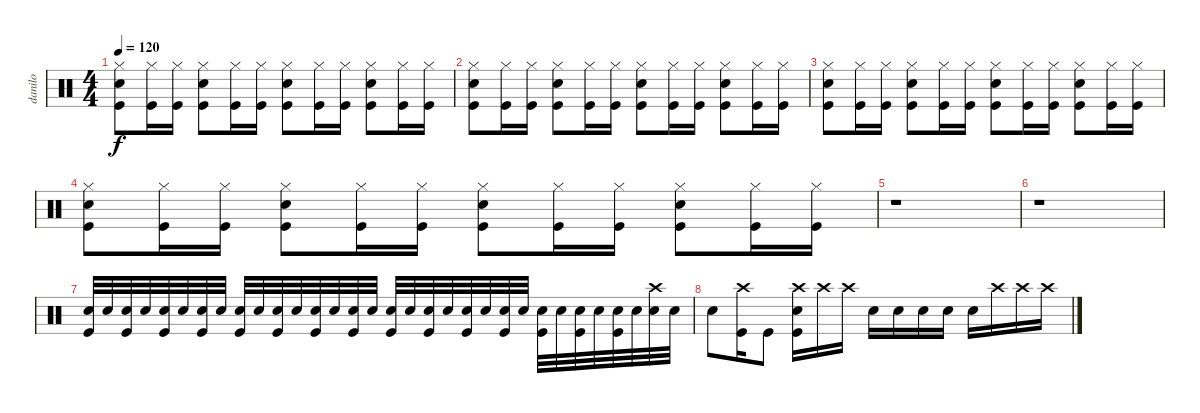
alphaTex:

\track ("danilo" "danilo") {instrument percussion}
\staff {score}
\articulation defaults
\ts (4 4)
\tempo 120
\clef neutral
\ks c
("Electric Snare (hit)" "Kick (hit)" "Hi-Hat (closed)").8{dy f} ("Kick (hit)" "Hi-Hat (closed)").16 ("Kick (hit)" "Hi-Hat (closed)").16 ("Electric Snare (hit)" "Kick (hit)" "Hi-Hat (closed)").8 ("Kick (hit)" "Hi-Hat (closed)").16 ("Kick (hit)" "Hi-Hat (closed)").16 ("Electric Snare (hit)" "Kick (hit)" "Hi-Hat (closed)").8 ("Kick (hit)" "Hi-Hat (closed)").16 ("Kick (hit)" "Hi-Hat (closed)").16 ("Electric Snare (hit)" "Kick (hit)" "Hi-Hat (closed)").8 ("Kick (hit)" "Hi-Hat (closed)").16 ("Kick (hit)" "Hi-Hat (closed)").16 |
("Electric Snare (hit)" "Kick (hit)" "Hi-Hat (closed)").8 ("Kick (hit)" "Hi-Hat (closed)").16 ("Kick (hit)" "Hi-Hat (closed)").16 ("Electric Snare (hit)" "Kick (hit)" "Hi-Hat (closed)").8 ("Kick (hit)" "Hi-Hat (closed)").16 ("Kick (hit)" "Hi-Hat (closed)").16 ("Electric Snare (hit)" "Kick (hit)" "Hi-Hat (closed)").8 ("Kick (hit)" "Hi-Hat (closed)").16 ("Kick (hit)" "Hi-Hat (closed)").16 ("Electric Snare (hit)" "Kick (hit)" "Hi-Hat (closed)").8 ("Kick (hit)" "Hi-Hat (closed)").16 ("Kick (hit)" "Hi-Hat (closed)").16 |
("Electric Snare (hit)" "Kick (hit)" "Hi-Hat (closed)").8 ("Kick (hit)" "Hi-Hat (closed)").16 ("Kick (hit)" "Hi-Hat (closed)").16 ("Electric Snare (hit)" "Kick (hit)" "Hi-Hat (closed)").8 ("Kick (hit)" "Hi-Hat (closed)").16 ("Kick (hit)" "Hi-Hat (closed)").16 ("Electric Snare (hit)" "Kick (hit)" "Hi-Hat (closed)").8 ("Kick (hit)" "Hi-Hat (closed)").16 ("Kick (hit)" "Hi-Hat (closed)").16 ("Electric Snare (hit)" "Kick (hit)" "Hi-Hat (closed)").8 ("Kick (hit)" "Hi-Hat (closed)").16 ("Kick (hit)" "Hi-Hat (closed)").16 |
("Electric Snare (hit)" "Kick (hit)" "Hi-Hat (closed)").8 ("Kick (hit)" "Hi-Hat (closed)").16 ("Kick (hit)" "Hi-Hat (closed)").16 ("Electric Snare (hit)" "Kick (hit)" "Hi-Hat (closed)").8 ("Kick (hit)" "Hi-Hat (closed)").16 ("Kick (hit)" "Hi-Hat (closed)").16 ("Electric Snare (hit)" "Kick (hit)" "Hi-Hat (closed)").8 ("Kick (hit)" "Hi-Hat (closed)").16 ("Kick (hit)" "Hi-Hat (closed)").16 ("Electric Snare (hit)" "Kick (hit)" "Hi-Hat (closed)").8 ("Kick (hit)" "Hi-Hat (closed)").16 ("Kick (hit)" "Hi-Hat (closed)").16 |
r.1 |
r.1 |
("Electric Snare (hit)" "Kick (hit)").32 "Electric Snare (hit)".32 ("Electric Snare (hit)" "Kick (hit)").32 "Electric Snare (hit)".32 ("Electric Snare (hit)" "Kick (hit)").32 "Electric Snare (hit)".32 ("Electric Snare (hit)" "Kick (hit)").32 "Electric Snare (hit)".32 ("Electric Snare (hit)" "Kick (hit)").32 "Electric Snare (hit)".32 ("Electric Snare (hit)" "Kick (hit)").32 "Electric Snare (hit)".32 ("Electric Snare (hit)" "Kick (hit)").32 "Electric Snare (hit)".32 ("Electric Snare (hit)" "Kick (hit)").32 "Electric Snare (hit)".32 ("Electric Snare (hit)" "Kick (hit)").32 "Electric Snare (hit)".32 ("Electric Snare (hit)" "Kick (hit)").32 "Electric Snare (hit)".32 ("Electric Snare (hit)" "Kick (hit)").32 "Electric Snare (hit)".32 ("Electric Snare (hit)" "Kick (hit)").32 "Electric Snare (hit)".32 ("Electric Snare (hit)" "Kick (hit)").32 "Electric Snare (hit)".32 ("Electric Snare (hit)" "Kick (hit)").32 "Electric Snare (hit)".32 ("Electric Snare (hit)" "Kick (hit)").32 "Electric Snare (hit)".32 ("Electric Snare (hit)" "Crash high (hit)").32 "Electric Snare (hit)".32 |
"Electric Snare (hit)".8 ("Kick (hit)" "Crash high (hit)").16 "Kick (hit)".8 ("Crash high (hit)" "Electric Snare (hit)" "Kick (hit)").16 "Crash high (hit)".16 "Crash high (hit)".16 "Electric Snare (hit)".16 "Electric Snare (hit)".16 "Electric Snare (hit)".16 "Electric Snare (hit)".16 "Electric Snare (hit)".16 "Crash high (hit)".16 "Crash high (hit)".16 "Crash high (hit)".16
